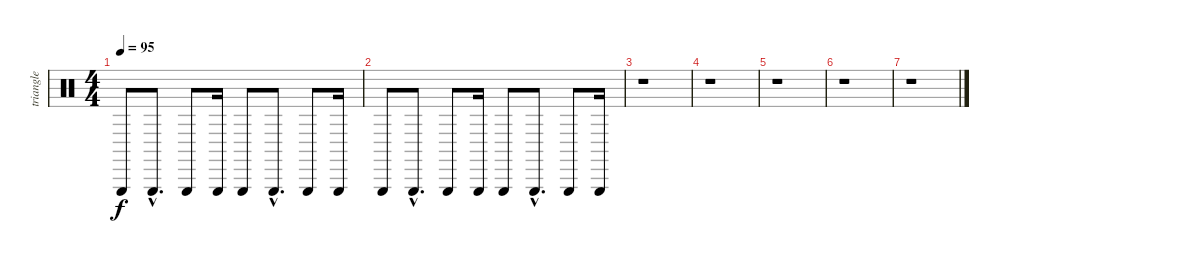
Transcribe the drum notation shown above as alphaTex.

\track ("triangle" "triangle") {instrument percussion}
\staff {score}
\articulation defaults
\ts (4 4)
\tempo 95
\clef neutral
\ks c "Triangle (hit)"{x}.8{dy f} "Triangle (hit)"{hac x}.8{d} "Triangle (hit)"{x}.8 "Triangle (hit)"{x}.16 "Triangle (hit)"{x}.8 "Triangle (hit)"{hac x}.8{d} "Triangle (hit)"{x}.8 "Triangle (hit)"{x}.16
|
"Triangle (hit)"{x}.8 "Triangle (hit)"{hac x}.8{d} "Triangle (hit)"{x}.8 "Triangle (hit)"{x}.16 "Triangle (hit)"{x}.8 "Triangle (hit)"{hac x}.8{d} "Triangle (hit)"{x}.8 "Triangle (hit)"{x}.16 |
r.1 |
r.1 |
r.1 |
r.1 |
r.1
